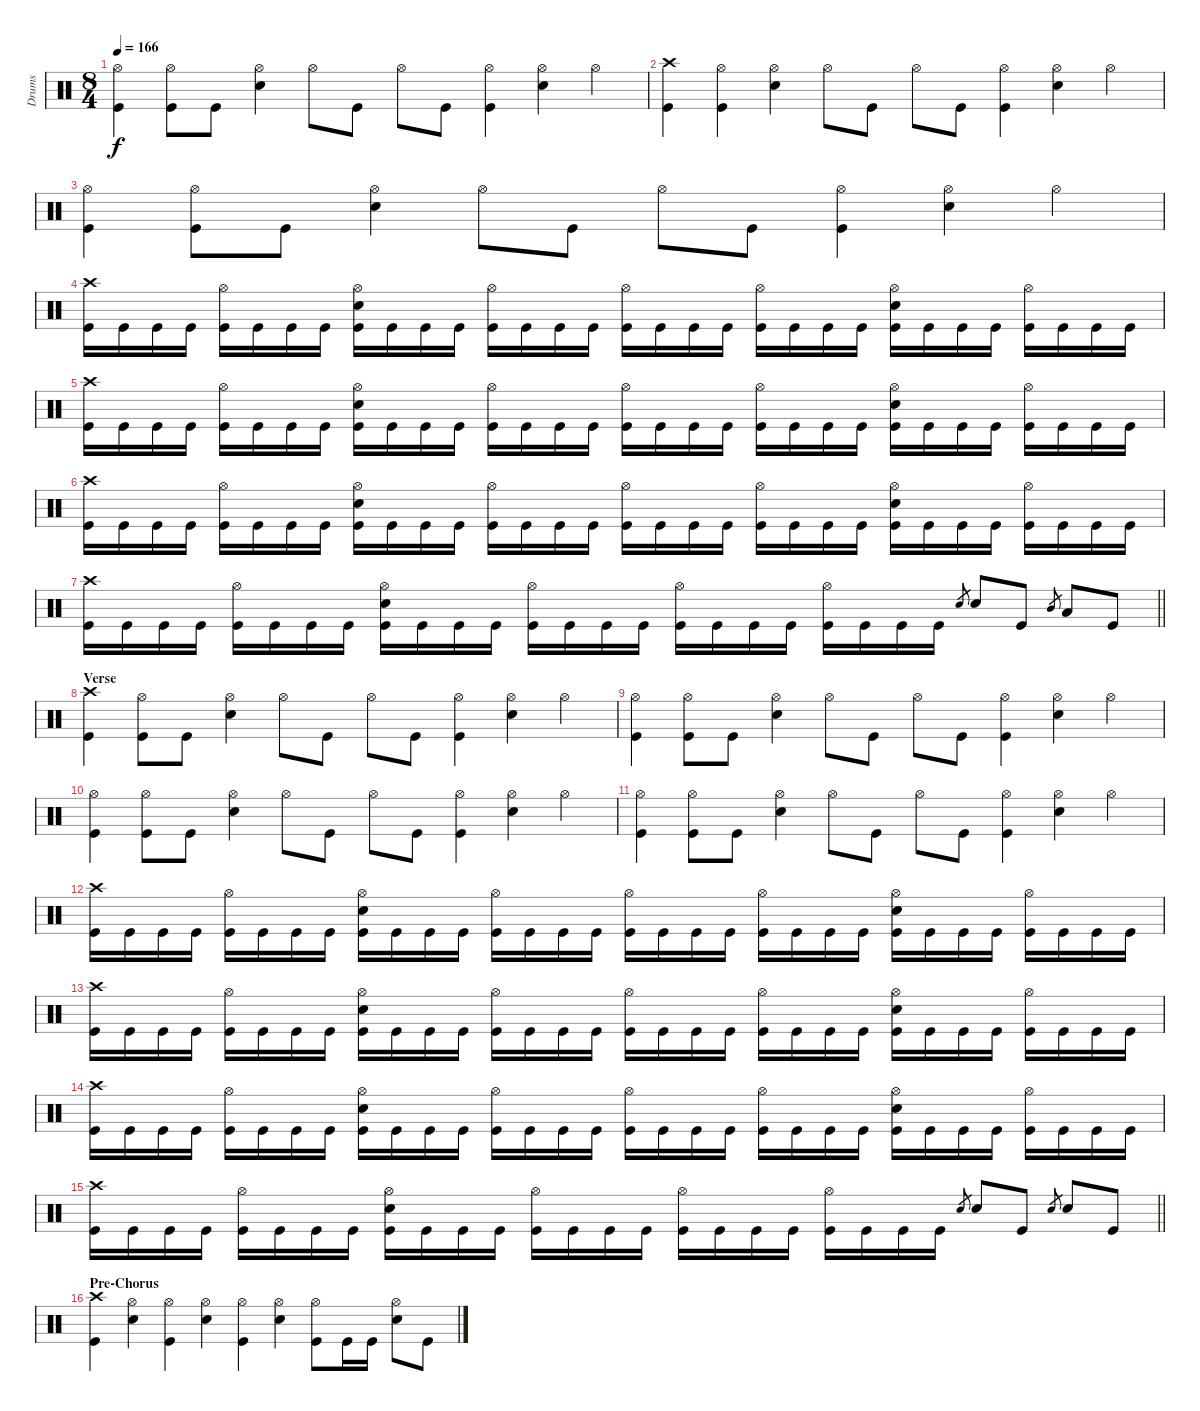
\track ("Drums" "Drums") {instrument percussion}
\staff {score}
\articulation defaults
\ts (8 4)
\tempo 166
\clef neutral
\ks c
("Hi-Hat (open)" "Kick (hit)").4{dy f} ("Hi-Hat (open)" "Kick (hit)").8 "Kick (hit)".8 ("Hi-Hat (open)" "Snare (hit) 2").4 "Hi-Hat (open)".8 "Kick (hit)".8 "Hi-Hat (open)".8 "Kick (hit)".8 ("Hi-Hat (open)" "Kick (hit)").4 ("Hi-Hat (open)" "Snare (hit) 2").4 "Hi-Hat (open)".4 |
("Crash high (hit)" "Kick (hit)").4 ("Hi-Hat (open)" "Kick (hit)").4 ("Hi-Hat (open)" "Snare (hit) 2").4 "Hi-Hat (open)".8 "Kick (hit)".8 "Hi-Hat (open)".8 "Kick (hit)".8 ("Hi-Hat (open)" "Kick (hit)").4 ("Hi-Hat (open)" "Snare (hit) 2").4 "Hi-Hat (open)".4 |
("Hi-Hat (open)" "Kick (hit)").4 ("Hi-Hat (open)" "Kick (hit)").8 "Kick (hit)".8 ("Hi-Hat (open)" "Snare (hit) 2").4 "Hi-Hat (open)".8 "Kick (hit)".8 "Hi-Hat (open)".8 "Kick (hit)".8 ("Hi-Hat (open)" "Kick (hit)").4 ("Hi-Hat (open)" "Snare (hit) 2").4 "Hi-Hat (open)".4 |
("Crash high (hit)" "Kick (hit)").16 "Kick (hit)".16 "Kick (hit)".16 "Kick (hit)".16 ("Hi-Hat (open)" "Kick (hit)").16 "Kick (hit)".16 "Kick (hit)".16 "Kick (hit)".16 ("Hi-Hat (open)" "Snare (hit) 2" "Kick (hit)").16 "Kick (hit)".16 "Kick (hit)".16 "Kick (hit)".16 ("Hi-Hat (open)" "Kick (hit)").16 "Kick (hit)".16 "Kick (hit)".16 "Kick (hit)".16 ("Hi-Hat (open)" "Kick (hit)").16 "Kick (hit)".16 "Kick (hit)".16 "Kick (hit)".16 ("Hi-Hat (open)" "Kick (hit)").16 "Kick (hit)".16 "Kick (hit)".16 "Kick (hit)".16 ("Hi-Hat (open)" "Snare (hit) 2" "Kick (hit)").16 "Kick (hit)".16 "Kick (hit)".16 "Kick (hit)".16 ("Hi-Hat (open)" "Kick (hit)").16 "Kick (hit)".16 "Kick (hit)".16 "Kick (hit)".16 |
("Crash high (hit)" "Kick (hit)").16 "Kick (hit)".16 "Kick (hit)".16 "Kick (hit)".16 ("Hi-Hat (open)" "Kick (hit)").16 "Kick (hit)".16 "Kick (hit)".16 "Kick (hit)".16 ("Hi-Hat (open)" "Snare (hit) 2" "Kick (hit)").16 "Kick (hit)".16 "Kick (hit)".16 "Kick (hit)".16 ("Hi-Hat (open)" "Kick (hit)").16 "Kick (hit)".16 "Kick (hit)".16 "Kick (hit)".16 ("Hi-Hat (open)" "Kick (hit)").16 "Kick (hit)".16 "Kick (hit)".16 "Kick (hit)".16 ("Hi-Hat (open)" "Kick (hit)").16 "Kick (hit)".16 "Kick (hit)".16 "Kick (hit)".16 ("Hi-Hat (open)" "Snare (hit) 2" "Kick (hit)").16 "Kick (hit)".16 "Kick (hit)".16 "Kick (hit)".16 ("Hi-Hat (open)" "Kick (hit)").16 "Kick (hit)".16 "Kick (hit)".16 "Kick (hit)".16 |
("Crash high (hit)" "Kick (hit)").16 "Kick (hit)".16 "Kick (hit)".16 "Kick (hit)".16 ("Hi-Hat (open)" "Kick (hit)").16 "Kick (hit)".16 "Kick (hit)".16 "Kick (hit)".16 ("Hi-Hat (open)" "Snare (hit) 2" "Kick (hit)").16 "Kick (hit)".16 "Kick (hit)".16 "Kick (hit)".16 ("Hi-Hat (open)" "Kick (hit)").16 "Kick (hit)".16 "Kick (hit)".16 "Kick (hit)".16 ("Hi-Hat (open)" "Kick (hit)").16 "Kick (hit)".16 "Kick (hit)".16 "Kick (hit)".16 ("Hi-Hat (open)" "Kick (hit)").16 "Kick (hit)".16 "Kick (hit)".16 "Kick (hit)".16 ("Hi-Hat (open)" "Snare (hit) 2" "Kick (hit)").16 "Kick (hit)".16 "Kick (hit)".16 "Kick (hit)".16 ("Hi-Hat (open)" "Kick (hit)").16 "Kick (hit)".16 "Kick (hit)".16 "Kick (hit)".16 |
\barLineRight lightlight
("Crash high (hit)" "Kick (hit)").16 "Kick (hit)".16 "Kick (hit)".16 "Kick (hit)".16 ("Hi-Hat (open)" "Kick (hit)").16 "Kick (hit)".16 "Kick (hit)".16 "Kick (hit)".16 ("Hi-Hat (open)" "Snare (hit) 2" "Kick (hit)").16 "Kick (hit)".16 "Kick (hit)".16 "Kick (hit)".16 ("Hi-Hat (open)" "Kick (hit)").16 "Kick (hit)".16 "Kick (hit)".16 "Kick (hit)".16 ("Hi-Hat (open)" "Kick (hit)").16 "Kick (hit)".16 "Kick (hit)".16 "Kick (hit)".16 ("Hi-Hat (open)" "Kick (hit)").16 "Kick (hit)".16 "Kick (hit)".16 "Kick (hit)".16 "Snare (hit) 2".8{gr} "Snare (hit) 2".8 "Kick (hit)".8 "Mid Tom (hit)".8{gr} "Low Tom (hit)".8 "Kick (hit)".8 |
\section ("" "Verse")
("Crash high (hit)" "Kick (hit)").4 ("Hi-Hat (open)" "Kick (hit)").8 "Kick (hit)".8 ("Hi-Hat (open)" "Snare (hit) 2").4 "Hi-Hat (open)".8 "Kick (hit)".8 "Hi-Hat (open)".8 "Kick (hit)".8 ("Hi-Hat (open)" "Kick (hit)").4 ("Hi-Hat (open)" "Snare (hit) 2").4 "Hi-Hat (open)".4 |
("Hi-Hat (open)" "Kick (hit)").4 ("Hi-Hat (open)" "Kick (hit)").8 "Kick (hit)".8 ("Hi-Hat (open)" "Snare (hit) 2").4 "Hi-Hat (open)".8 "Kick (hit)".8 "Hi-Hat (open)".8 "Kick (hit)".8 ("Hi-Hat (open)" "Kick (hit)").4 ("Hi-Hat (open)" "Snare (hit) 2").4 "Hi-Hat (open)".4 |
("Hi-Hat (open)" "Kick (hit)").4 ("Hi-Hat (open)" "Kick (hit)").8 "Kick (hit)".8 ("Hi-Hat (open)" "Snare (hit) 2").4 "Hi-Hat (open)".8 "Kick (hit)".8 "Hi-Hat (open)".8 "Kick (hit)".8 ("Hi-Hat (open)" "Kick (hit)").4 ("Hi-Hat (open)" "Snare (hit) 2").4 "Hi-Hat (open)".4 |
("Hi-Hat (open)" "Kick (hit)").4 ("Hi-Hat (open)" "Kick (hit)").8 "Kick (hit)".8 ("Hi-Hat (open)" "Snare (hit) 2").4 "Hi-Hat (open)".8 "Kick (hit)".8 "Hi-Hat (open)".8 "Kick (hit)".8 ("Hi-Hat (open)" "Kick (hit)").4 ("Hi-Hat (open)" "Snare (hit) 2").4 "Hi-Hat (open)".4 |
("Crash high (hit)" "Kick (hit)").16 "Kick (hit)".16 "Kick (hit)".16 "Kick (hit)".16 ("Hi-Hat (open)" "Kick (hit)").16 "Kick (hit)".16 "Kick (hit)".16 "Kick (hit)".16 ("Hi-Hat (open)" "Snare (hit) 2" "Kick (hit)").16 "Kick (hit)".16 "Kick (hit)".16 "Kick (hit)".16 ("Hi-Hat (open)" "Kick (hit)").16 "Kick (hit)".16 "Kick (hit)".16 "Kick (hit)".16 ("Hi-Hat (open)" "Kick (hit)").16 "Kick (hit)".16 "Kick (hit)".16 "Kick (hit)".16 ("Hi-Hat (open)" "Kick (hit)").16 "Kick (hit)".16 "Kick (hit)".16 "Kick (hit)".16 ("Hi-Hat (open)" "Snare (hit) 2" "Kick (hit)").16 "Kick (hit)".16 "Kick (hit)".16 "Kick (hit)".16 ("Hi-Hat (open)" "Kick (hit)").16 "Kick (hit)".16 "Kick (hit)".16 "Kick (hit)".16 |
("Crash high (hit)" "Kick (hit)").16 "Kick (hit)".16 "Kick (hit)".16 "Kick (hit)".16 ("Hi-Hat (open)" "Kick (hit)").16 "Kick (hit)".16 "Kick (hit)".16 "Kick (hit)".16 ("Hi-Hat (open)" "Snare (hit) 2" "Kick (hit)").16 "Kick (hit)".16 "Kick (hit)".16 "Kick (hit)".16 ("Hi-Hat (open)" "Kick (hit)").16 "Kick (hit)".16 "Kick (hit)".16 "Kick (hit)".16 ("Hi-Hat (open)" "Kick (hit)").16 "Kick (hit)".16 "Kick (hit)".16 "Kick (hit)".16 ("Hi-Hat (open)" "Kick (hit)").16 "Kick (hit)".16 "Kick (hit)".16 "Kick (hit)".16 ("Hi-Hat (open)" "Snare (hit) 2" "Kick (hit)").16 "Kick (hit)".16 "Kick (hit)".16 "Kick (hit)".16 ("Hi-Hat (open)" "Kick (hit)").16 "Kick (hit)".16 "Kick (hit)".16 "Kick (hit)".16 |
("Crash high (hit)" "Kick (hit)").16 "Kick (hit)".16 "Kick (hit)".16 "Kick (hit)".16 ("Hi-Hat (open)" "Kick (hit)").16 "Kick (hit)".16 "Kick (hit)".16 "Kick (hit)".16 ("Hi-Hat (open)" "Snare (hit) 2" "Kick (hit)").16 "Kick (hit)".16 "Kick (hit)".16 "Kick (hit)".16 ("Hi-Hat (open)" "Kick (hit)").16 "Kick (hit)".16 "Kick (hit)".16 "Kick (hit)".16 ("Hi-Hat (open)" "Kick (hit)").16 "Kick (hit)".16 "Kick (hit)".16 "Kick (hit)".16 ("Hi-Hat (open)" "Kick (hit)").16 "Kick (hit)".16 "Kick (hit)".16 "Kick (hit)".16 ("Hi-Hat (open)" "Snare (hit) 2" "Kick (hit)").16 "Kick (hit)".16 "Kick (hit)".16 "Kick (hit)".16 ("Hi-Hat (open)" "Kick (hit)").16 "Kick (hit)".16 "Kick (hit)".16 "Kick (hit)".16 |
\barLineRight lightlight
("Crash high (hit)" "Kick (hit)").16 "Kick (hit)".16 "Kick (hit)".16 "Kick (hit)".16 ("Hi-Hat (open)" "Kick (hit)").16 "Kick (hit)".16 "Kick (hit)".16 "Kick (hit)".16 ("Hi-Hat (open)" "Snare (hit) 2" "Kick (hit)").16 "Kick (hit)".16 "Kick (hit)".16 "Kick (hit)".16 ("Hi-Hat (open)" "Kick (hit)").16 "Kick (hit)".16 "Kick (hit)".16 "Kick (hit)".16 ("Hi-Hat (open)" "Kick (hit)").16 "Kick (hit)".16 "Kick (hit)".16 "Kick (hit)".16 ("Hi-Hat (open)" "Kick (hit)").16 "Kick (hit)".16 "Kick (hit)".16 "Kick (hit)".16 "Snare (hit) 2".8{gr} "Snare (hit) 2".8 "Kick (hit)".8 "Snare (hit) 2".8{gr} "Snare (hit) 2".8 "Kick (hit)".8 |
\section ("" "Pre-Chorus")
("Crash high (hit)" "Kick (hit)").4 ("Hi-Hat (open)" "Snare (hit) 2").4 ("Hi-Hat (open)" "Kick (hit)").4 ("Hi-Hat (open)" "Snare (hit) 2").4 ("Hi-Hat (open)" "Kick (hit)").4 ("Hi-Hat (open)" "Snare (hit) 2").4 ("Hi-Hat (open)" "Kick (hit)").8 "Kick (hit)".16 "Kick (hit)".16 ("Hi-Hat (open)" "Snare (hit) 2").8 "Kick (hit)".8
